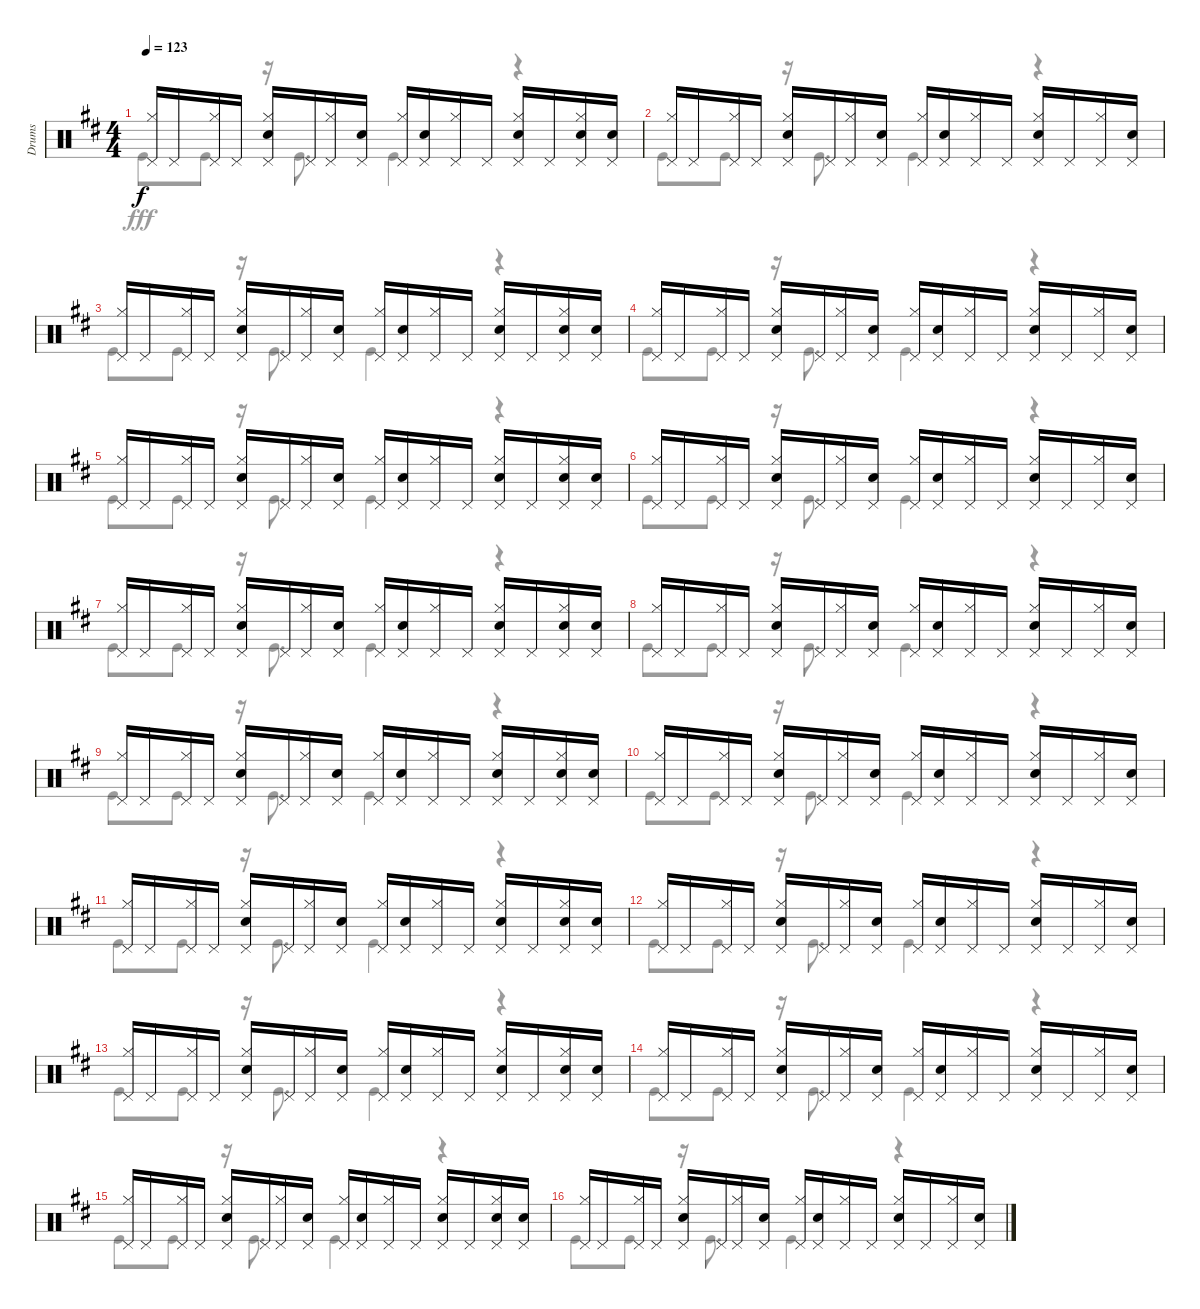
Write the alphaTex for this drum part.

\track ("Drums" "Drums") {instrument percussion}
\staff {score}
\articulation defaults
\voice
\ts (4 4)
\tempo 123
\clef neutral
\ks d
("Hi-Hat (closed)" "Pedal Hi-Hat (hit)").16{dy f} "Pedal Hi-Hat (hit)".16 ("Hi-Hat (closed)" "Pedal Hi-Hat (hit)").16 "Pedal Hi-Hat (hit)".16 ("Hi-Hat (closed)" "Snare (hit) 2" "Pedal Hi-Hat (hit)").16 "Pedal Hi-Hat (hit)".16 ("Hi-Hat (closed)" "Pedal Hi-Hat (hit)").16 ("Pedal Hi-Hat (hit)" "Snare (hit) 2").16 ("Hi-Hat (closed)" "Pedal Hi-Hat (hit)").16 ("Pedal Hi-Hat (hit)" "Snare (hit) 2").16 ("Hi-Hat (closed)" "Pedal Hi-Hat (hit)").16 "Pedal Hi-Hat (hit)".16 ("Hi-Hat (closed)" "Snare (hit) 2" "Pedal Hi-Hat (hit)").16 "Pedal Hi-Hat (hit)".16 ("Hi-Hat (closed)" "Snare (hit) 2" "Pedal Hi-Hat (hit)").16 ("Pedal Hi-Hat (hit)" "Snare (hit) 2").16 |
("Hi-Hat (closed)" "Pedal Hi-Hat (hit)").16 "Pedal Hi-Hat (hit)".16 ("Hi-Hat (closed)" "Pedal Hi-Hat (hit)").16 "Pedal Hi-Hat (hit)".16 ("Hi-Hat (closed)" "Snare (hit) 2" "Pedal Hi-Hat (hit)").16 "Pedal Hi-Hat (hit)".16 ("Hi-Hat (closed)" "Pedal Hi-Hat (hit)").16 ("Pedal Hi-Hat (hit)" "Snare (hit) 2").16 ("Hi-Hat (closed)" "Pedal Hi-Hat (hit)").16 ("Pedal Hi-Hat (hit)" "Snare (hit) 2").16 ("Hi-Hat (closed)" "Pedal Hi-Hat (hit)").16 "Pedal Hi-Hat (hit)".16 ("Hi-Hat (closed)" "Snare (hit) 2" "Pedal Hi-Hat (hit)").16 "Pedal Hi-Hat (hit)".16 ("Hi-Hat (closed)" "Pedal Hi-Hat (hit)").16 ("Pedal Hi-Hat (hit)" "Snare (hit) 2").16 |
("Hi-Hat (closed)" "Pedal Hi-Hat (hit)").16 "Pedal Hi-Hat (hit)".16 ("Hi-Hat (closed)" "Pedal Hi-Hat (hit)").16 "Pedal Hi-Hat (hit)".16 ("Hi-Hat (closed)" "Snare (hit) 2" "Pedal Hi-Hat (hit)").16 "Pedal Hi-Hat (hit)".16 ("Hi-Hat (closed)" "Pedal Hi-Hat (hit)").16 ("Pedal Hi-Hat (hit)" "Snare (hit) 2").16 ("Hi-Hat (closed)" "Pedal Hi-Hat (hit)").16 ("Pedal Hi-Hat (hit)" "Snare (hit) 2").16 ("Hi-Hat (closed)" "Pedal Hi-Hat (hit)").16 "Pedal Hi-Hat (hit)".16 ("Hi-Hat (closed)" "Snare (hit) 2" "Pedal Hi-Hat (hit)").16 "Pedal Hi-Hat (hit)".16 ("Hi-Hat (closed)" "Snare (hit) 2" "Pedal Hi-Hat (hit)").16 ("Pedal Hi-Hat (hit)" "Snare (hit) 2").16 |
("Hi-Hat (closed)" "Pedal Hi-Hat (hit)").16 "Pedal Hi-Hat (hit)".16 ("Hi-Hat (closed)" "Pedal Hi-Hat (hit)").16 "Pedal Hi-Hat (hit)".16 ("Hi-Hat (closed)" "Snare (hit) 2" "Pedal Hi-Hat (hit)").16 "Pedal Hi-Hat (hit)".16 ("Hi-Hat (closed)" "Pedal Hi-Hat (hit)").16 ("Pedal Hi-Hat (hit)" "Snare (hit) 2").16 ("Hi-Hat (closed)" "Pedal Hi-Hat (hit)").16 ("Pedal Hi-Hat (hit)" "Snare (hit) 2").16 ("Hi-Hat (closed)" "Pedal Hi-Hat (hit)").16 "Pedal Hi-Hat (hit)".16 ("Hi-Hat (closed)" "Snare (hit) 2" "Pedal Hi-Hat (hit)").16 "Pedal Hi-Hat (hit)".16 ("Hi-Hat (closed)" "Pedal Hi-Hat (hit)").16 ("Pedal Hi-Hat (hit)" "Snare (hit) 2").16 |
("Hi-Hat (closed)" "Pedal Hi-Hat (hit)").16 "Pedal Hi-Hat (hit)".16 ("Hi-Hat (closed)" "Pedal Hi-Hat (hit)").16 "Pedal Hi-Hat (hit)".16 ("Hi-Hat (closed)" "Snare (hit) 2" "Pedal Hi-Hat (hit)").16 "Pedal Hi-Hat (hit)".16 ("Hi-Hat (closed)" "Pedal Hi-Hat (hit)").16 ("Pedal Hi-Hat (hit)" "Snare (hit) 2").16 ("Hi-Hat (closed)" "Pedal Hi-Hat (hit)").16 ("Pedal Hi-Hat (hit)" "Snare (hit) 2").16 ("Hi-Hat (closed)" "Pedal Hi-Hat (hit)").16 "Pedal Hi-Hat (hit)".16 ("Hi-Hat (closed)" "Snare (hit) 2" "Pedal Hi-Hat (hit)").16 "Pedal Hi-Hat (hit)".16 ("Hi-Hat (closed)" "Snare (hit) 2" "Pedal Hi-Hat (hit)").16 ("Pedal Hi-Hat (hit)" "Snare (hit) 2").16 |
("Hi-Hat (closed)" "Pedal Hi-Hat (hit)").16 "Pedal Hi-Hat (hit)".16 ("Hi-Hat (closed)" "Pedal Hi-Hat (hit)").16 "Pedal Hi-Hat (hit)".16 ("Hi-Hat (closed)" "Snare (hit) 2" "Pedal Hi-Hat (hit)").16 "Pedal Hi-Hat (hit)".16 ("Hi-Hat (closed)" "Pedal Hi-Hat (hit)").16 ("Pedal Hi-Hat (hit)" "Snare (hit) 2").16 ("Hi-Hat (closed)" "Pedal Hi-Hat (hit)").16 ("Pedal Hi-Hat (hit)" "Snare (hit) 2").16 ("Hi-Hat (closed)" "Pedal Hi-Hat (hit)").16 "Pedal Hi-Hat (hit)".16 ("Hi-Hat (closed)" "Snare (hit) 2" "Pedal Hi-Hat (hit)").16 "Pedal Hi-Hat (hit)".16 ("Hi-Hat (closed)" "Pedal Hi-Hat (hit)").16 ("Pedal Hi-Hat (hit)" "Snare (hit) 2").16 |
("Hi-Hat (closed)" "Pedal Hi-Hat (hit)").16 "Pedal Hi-Hat (hit)".16 ("Hi-Hat (closed)" "Pedal Hi-Hat (hit)").16 "Pedal Hi-Hat (hit)".16 ("Hi-Hat (closed)" "Snare (hit) 2" "Pedal Hi-Hat (hit)").16 "Pedal Hi-Hat (hit)".16 ("Hi-Hat (closed)" "Pedal Hi-Hat (hit)").16 ("Pedal Hi-Hat (hit)" "Snare (hit) 2").16 ("Hi-Hat (closed)" "Pedal Hi-Hat (hit)").16 ("Pedal Hi-Hat (hit)" "Snare (hit) 2").16 ("Hi-Hat (closed)" "Pedal Hi-Hat (hit)").16 "Pedal Hi-Hat (hit)".16 ("Hi-Hat (closed)" "Snare (hit) 2" "Pedal Hi-Hat (hit)").16 "Pedal Hi-Hat (hit)".16 ("Hi-Hat (closed)" "Snare (hit) 2" "Pedal Hi-Hat (hit)").16 ("Pedal Hi-Hat (hit)" "Snare (hit) 2").16 |
("Hi-Hat (closed)" "Pedal Hi-Hat (hit)").16 "Pedal Hi-Hat (hit)".16 ("Hi-Hat (closed)" "Pedal Hi-Hat (hit)").16 "Pedal Hi-Hat (hit)".16 ("Hi-Hat (closed)" "Snare (hit) 2" "Pedal Hi-Hat (hit)").16 "Pedal Hi-Hat (hit)".16 ("Hi-Hat (closed)" "Pedal Hi-Hat (hit)").16 ("Pedal Hi-Hat (hit)" "Snare (hit) 2").16 ("Hi-Hat (closed)" "Pedal Hi-Hat (hit)").16 ("Pedal Hi-Hat (hit)" "Snare (hit) 2").16 ("Hi-Hat (closed)" "Pedal Hi-Hat (hit)").16 "Pedal Hi-Hat (hit)".16 ("Hi-Hat (closed)" "Snare (hit) 2" "Pedal Hi-Hat (hit)").16 "Pedal Hi-Hat (hit)".16 ("Hi-Hat (closed)" "Pedal Hi-Hat (hit)").16 ("Pedal Hi-Hat (hit)" "Snare (hit) 2").16 |
("Hi-Hat (closed)" "Pedal Hi-Hat (hit)").16 "Pedal Hi-Hat (hit)".16 ("Hi-Hat (closed)" "Pedal Hi-Hat (hit)").16 "Pedal Hi-Hat (hit)".16 ("Hi-Hat (closed)" "Snare (hit) 2" "Pedal Hi-Hat (hit)").16 "Pedal Hi-Hat (hit)".16 ("Hi-Hat (closed)" "Pedal Hi-Hat (hit)").16 ("Pedal Hi-Hat (hit)" "Snare (hit) 2").16 ("Hi-Hat (closed)" "Pedal Hi-Hat (hit)").16 ("Pedal Hi-Hat (hit)" "Snare (hit) 2").16 ("Hi-Hat (closed)" "Pedal Hi-Hat (hit)").16 "Pedal Hi-Hat (hit)".16 ("Hi-Hat (closed)" "Snare (hit) 2" "Pedal Hi-Hat (hit)").16 "Pedal Hi-Hat (hit)".16 ("Hi-Hat (closed)" "Snare (hit) 2" "Pedal Hi-Hat (hit)").16 ("Pedal Hi-Hat (hit)" "Snare (hit) 2").16 |
("Hi-Hat (closed)" "Pedal Hi-Hat (hit)").16 "Pedal Hi-Hat (hit)".16 ("Hi-Hat (closed)" "Pedal Hi-Hat (hit)").16 "Pedal Hi-Hat (hit)".16 ("Hi-Hat (closed)" "Snare (hit) 2" "Pedal Hi-Hat (hit)").16 "Pedal Hi-Hat (hit)".16 ("Hi-Hat (closed)" "Pedal Hi-Hat (hit)").16 ("Pedal Hi-Hat (hit)" "Snare (hit) 2").16 ("Hi-Hat (closed)" "Pedal Hi-Hat (hit)").16 ("Pedal Hi-Hat (hit)" "Snare (hit) 2").16 ("Hi-Hat (closed)" "Pedal Hi-Hat (hit)").16 "Pedal Hi-Hat (hit)".16 ("Hi-Hat (closed)" "Snare (hit) 2" "Pedal Hi-Hat (hit)").16 "Pedal Hi-Hat (hit)".16 ("Hi-Hat (closed)" "Pedal Hi-Hat (hit)").16 ("Pedal Hi-Hat (hit)" "Snare (hit) 2").16 |
("Hi-Hat (closed)" "Pedal Hi-Hat (hit)").16 "Pedal Hi-Hat (hit)".16 ("Hi-Hat (closed)" "Pedal Hi-Hat (hit)").16 "Pedal Hi-Hat (hit)".16 ("Hi-Hat (closed)" "Snare (hit) 2" "Pedal Hi-Hat (hit)").16 "Pedal Hi-Hat (hit)".16 ("Hi-Hat (closed)" "Pedal Hi-Hat (hit)").16 ("Pedal Hi-Hat (hit)" "Snare (hit) 2").16 ("Hi-Hat (closed)" "Pedal Hi-Hat (hit)").16 ("Pedal Hi-Hat (hit)" "Snare (hit) 2").16 ("Hi-Hat (closed)" "Pedal Hi-Hat (hit)").16 "Pedal Hi-Hat (hit)".16 ("Hi-Hat (closed)" "Snare (hit) 2" "Pedal Hi-Hat (hit)").16 "Pedal Hi-Hat (hit)".16 ("Hi-Hat (closed)" "Snare (hit) 2" "Pedal Hi-Hat (hit)").16 ("Pedal Hi-Hat (hit)" "Snare (hit) 2").16 |
("Hi-Hat (closed)" "Pedal Hi-Hat (hit)").16 "Pedal Hi-Hat (hit)".16 ("Hi-Hat (closed)" "Pedal Hi-Hat (hit)").16 "Pedal Hi-Hat (hit)".16 ("Hi-Hat (closed)" "Snare (hit) 2" "Pedal Hi-Hat (hit)").16 "Pedal Hi-Hat (hit)".16 ("Hi-Hat (closed)" "Pedal Hi-Hat (hit)").16 ("Pedal Hi-Hat (hit)" "Snare (hit) 2").16 ("Hi-Hat (closed)" "Pedal Hi-Hat (hit)").16 ("Pedal Hi-Hat (hit)" "Snare (hit) 2").16 ("Hi-Hat (closed)" "Pedal Hi-Hat (hit)").16 "Pedal Hi-Hat (hit)".16 ("Hi-Hat (closed)" "Snare (hit) 2" "Pedal Hi-Hat (hit)").16 "Pedal Hi-Hat (hit)".16 ("Hi-Hat (closed)" "Pedal Hi-Hat (hit)").16 ("Pedal Hi-Hat (hit)" "Snare (hit) 2").16 |
("Hi-Hat (closed)" "Pedal Hi-Hat (hit)").16 "Pedal Hi-Hat (hit)".16 ("Hi-Hat (closed)" "Pedal Hi-Hat (hit)").16 "Pedal Hi-Hat (hit)".16 ("Hi-Hat (closed)" "Snare (hit) 2" "Pedal Hi-Hat (hit)").16 "Pedal Hi-Hat (hit)".16 ("Hi-Hat (closed)" "Pedal Hi-Hat (hit)").16 ("Pedal Hi-Hat (hit)" "Snare (hit) 2").16 ("Hi-Hat (closed)" "Pedal Hi-Hat (hit)").16 ("Pedal Hi-Hat (hit)" "Snare (hit) 2").16 ("Hi-Hat (closed)" "Pedal Hi-Hat (hit)").16 "Pedal Hi-Hat (hit)".16 ("Hi-Hat (closed)" "Snare (hit) 2" "Pedal Hi-Hat (hit)").16 "Pedal Hi-Hat (hit)".16 ("Hi-Hat (closed)" "Snare (hit) 2" "Pedal Hi-Hat (hit)").16 ("Pedal Hi-Hat (hit)" "Snare (hit) 2").16 |
("Hi-Hat (closed)" "Pedal Hi-Hat (hit)").16 "Pedal Hi-Hat (hit)".16 ("Hi-Hat (closed)" "Pedal Hi-Hat (hit)").16 "Pedal Hi-Hat (hit)".16 ("Hi-Hat (closed)" "Snare (hit) 2" "Pedal Hi-Hat (hit)").16 "Pedal Hi-Hat (hit)".16 ("Hi-Hat (closed)" "Pedal Hi-Hat (hit)").16 ("Pedal Hi-Hat (hit)" "Snare (hit) 2").16 ("Hi-Hat (closed)" "Pedal Hi-Hat (hit)").16 ("Pedal Hi-Hat (hit)" "Snare (hit) 2").16 ("Hi-Hat (closed)" "Pedal Hi-Hat (hit)").16 "Pedal Hi-Hat (hit)".16 ("Hi-Hat (closed)" "Snare (hit) 2" "Pedal Hi-Hat (hit)").16 "Pedal Hi-Hat (hit)".16 ("Hi-Hat (closed)" "Pedal Hi-Hat (hit)").16 ("Pedal Hi-Hat (hit)" "Snare (hit) 2").16 |
("Hi-Hat (closed)" "Pedal Hi-Hat (hit)").16 "Pedal Hi-Hat (hit)".16 ("Hi-Hat (closed)" "Pedal Hi-Hat (hit)").16 "Pedal Hi-Hat (hit)".16 ("Hi-Hat (closed)" "Snare (hit) 2" "Pedal Hi-Hat (hit)").16 "Pedal Hi-Hat (hit)".16 ("Hi-Hat (closed)" "Pedal Hi-Hat (hit)").16 ("Pedal Hi-Hat (hit)" "Snare (hit) 2").16 ("Hi-Hat (closed)" "Pedal Hi-Hat (hit)").16 ("Pedal Hi-Hat (hit)" "Snare (hit) 2").16 ("Hi-Hat (closed)" "Pedal Hi-Hat (hit)").16 "Pedal Hi-Hat (hit)".16 ("Hi-Hat (closed)" "Snare (hit) 2" "Pedal Hi-Hat (hit)").16 "Pedal Hi-Hat (hit)".16 ("Hi-Hat (closed)" "Snare (hit) 2" "Pedal Hi-Hat (hit)").16 ("Pedal Hi-Hat (hit)" "Snare (hit) 2").16 |
("Hi-Hat (closed)" "Pedal Hi-Hat (hit)").16 "Pedal Hi-Hat (hit)".16 ("Hi-Hat (closed)" "Pedal Hi-Hat (hit)").16 "Pedal Hi-Hat (hit)".16 ("Hi-Hat (closed)" "Snare (hit) 2" "Pedal Hi-Hat (hit)").16 "Pedal Hi-Hat (hit)".16 ("Hi-Hat (closed)" "Pedal Hi-Hat (hit)").16 ("Pedal Hi-Hat (hit)" "Snare (hit) 2").16 ("Hi-Hat (closed)" "Pedal Hi-Hat (hit)").16 ("Pedal Hi-Hat (hit)" "Snare (hit) 2").16 ("Hi-Hat (closed)" "Pedal Hi-Hat (hit)").16 "Pedal Hi-Hat (hit)".16 ("Hi-Hat (closed)" "Snare (hit) 2" "Pedal Hi-Hat (hit)").16 "Pedal Hi-Hat (hit)".16 ("Hi-Hat (closed)" "Pedal Hi-Hat (hit)").16 ("Pedal Hi-Hat (hit)" "Snare (hit) 2").16
\voice
\clef neutral
\ottava regular
\simile none
\ks d "Kick (hit)".8{dy fff} "Kick (hit)".8
r.16 "Kick (hit)".8{d} "Kick (hit)".4 r.4 |
"Kick (hit)".8 "Kick (hit)".8 r.16 "Kick (hit)".8{d} "Kick (hit)".4 r.4 |
"Kick (hit)".8 "Kick (hit)".8 r.16 "Kick (hit)".8{d} "Kick (hit)".4 r.4 |
"Kick (hit)".8 "Kick (hit)".8 r.16 "Kick (hit)".8{d} "Kick (hit)".4 r.4 |
"Kick (hit)".8 "Kick (hit)".8 r.16 "Kick (hit)".8{d} "Kick (hit)".4 r.4 |
"Kick (hit)".8 "Kick (hit)".8 r.16 "Kick (hit)".8{d} "Kick (hit)".4 r.4 |
"Kick (hit)".8 "Kick (hit)".8 r.16 "Kick (hit)".8{d} "Kick (hit)".4 r.4 |
"Kick (hit)".8 "Kick (hit)".8 r.16 "Kick (hit)".8{d} "Kick (hit)".4 r.4 |
"Kick (hit)".8 "Kick (hit)".8 r.16 "Kick (hit)".8{d} "Kick (hit)".4 r.4 |
"Kick (hit)".8 "Kick (hit)".8 r.16 "Kick (hit)".8{d} "Kick (hit)".4 r.4 |
"Kick (hit)".8 "Kick (hit)".8 r.16 "Kick (hit)".8{d} "Kick (hit)".4 r.4 |
"Kick (hit)".8 "Kick (hit)".8 r.16 "Kick (hit)".8{d} "Kick (hit)".4 r.4 |
"Kick (hit)".8 "Kick (hit)".8 r.16 "Kick (hit)".8{d} "Kick (hit)".4 r.4 |
"Kick (hit)".8 "Kick (hit)".8 r.16 "Kick (hit)".8{d} "Kick (hit)".4 r.4 |
"Kick (hit)".8 "Kick (hit)".8 r.16 "Kick (hit)".8{d} "Kick (hit)".4 r.4 |
"Kick (hit)".8 "Kick (hit)".8 r.16 "Kick (hit)".8{d} "Kick (hit)".4 r.4
